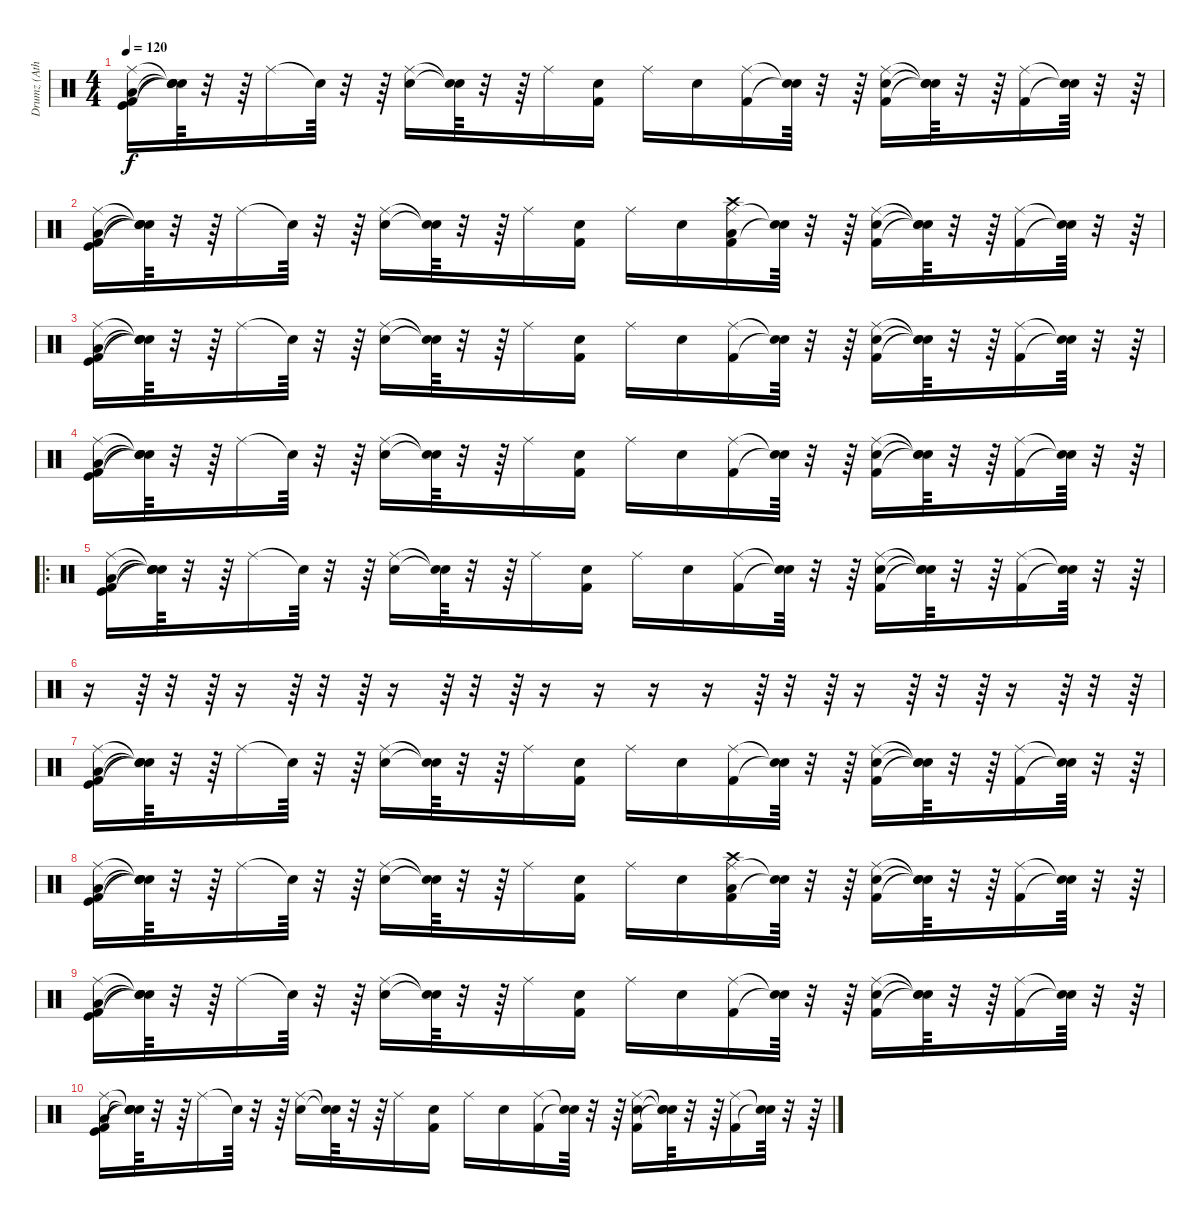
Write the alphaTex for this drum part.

\track ("Drumz (Athlon 800mhk)" "Drumz (Ath") {instrument percussion}
\staff {score}
\articulation defaults
\ts (4 4)
\tempo 120
\clef neutral
\ks c
("Kick (hit) 2" "Low Tom (hit)" "Kick (hit)" "Ride (middle)").16{dy f} ("Snare (hit)"{t} "Snare (hit)"{t} "Snare (hit)"{t} "Snare (hit)"{t}).64 r.32 r.64 "Ride (middle)".16 "Snare (hit)"{t}.64 r.32 r.64 ("Snare (hit) 2" "Ride (middle)").16 ("Snare (hit)"{t} "Snare (hit)"{t}).64 r.32 r.64 "Ride (middle)".16 ("Kick (hit) 2" "Snare (hit) 2").16 "Ride (middle)".16 "Snare (hit) 2".16 ("Kick (hit) 2" "Ride (middle)").16 ("Snare (hit)"{t} "Snare (hit)"{t}).64 r.32 r.64 ("Ride (middle)" "Snare (hit) 2" "Kick (hit) 2").16 ("Snare (hit)"{t} "Snare (hit)"{t} "Snare (hit)"{t}).64 r.32 r.64 ("Ride (middle)" "Kick (hit) 2").16 ("Snare (hit)"{t} "Snare (hit)"{t}).64 r.32 r.64 |
("Kick (hit) 2" "Low Tom (hit)" "Kick (hit)" "Ride (middle)").16 ("Snare (hit)"{t} "Snare (hit)"{t} "Snare (hit)"{t} "Snare (hit)"{t}).64 r.32 r.64 "Ride (middle)".16 "Snare (hit)"{t}.64 r.32 r.64 ("Snare (hit) 2" "Ride (middle)").16 ("Snare (hit)"{t} "Snare (hit)"{t}).64 r.32 r.64 "Ride (middle)".16 ("Kick (hit) 2" "Snare (hit) 2").16 "Ride (middle)".16 "Snare (hit) 2".16 ("Kick (hit) 2" "Ride (middle)" "Crash high (hit)" "Low Tom (hit)").16 ("Snare (hit)"{t} "Snare (hit)"{t}).64 r.32 r.64 ("Ride (middle)" "Snare (hit) 2" "Kick (hit) 2").16 ("Snare (hit)"{t} "Snare (hit)"{t} "Snare (hit)"{t}).64 r.32 r.64 ("Ride (middle)" "Kick (hit) 2").16 ("Snare (hit)"{t} "Snare (hit)"{t}).64 r.32 r.64 |
("Kick (hit) 2" "Low Tom (hit)" "Kick (hit)" "Ride (middle)").16 ("Snare (hit)"{t} "Snare (hit)"{t} "Snare (hit)"{t} "Snare (hit)"{t}).64 r.32 r.64 "Ride (middle)".16 "Snare (hit)"{t}.64 r.32 r.64 ("Snare (hit) 2" "Ride (middle)").16 ("Snare (hit)"{t} "Snare (hit)"{t}).64 r.32 r.64 "Ride (middle)".16 ("Kick (hit) 2" "Snare (hit) 2").16 "Ride (middle)".16 "Snare (hit) 2".16 ("Kick (hit) 2" "Ride (middle)").16 ("Snare (hit)"{t} "Snare (hit)"{t}).64 r.32 r.64 ("Ride (middle)" "Snare (hit) 2" "Kick (hit) 2").16 ("Snare (hit)"{t} "Snare (hit)"{t} "Snare (hit)"{t}).64 r.32 r.64 ("Ride (middle)" "Kick (hit) 2").16 ("Snare (hit)"{t} "Snare (hit)"{t}).64 r.32 r.64 |
("Kick (hit) 2" "Low Tom (hit)" "Kick (hit)" "Ride (middle)").16 ("Snare (hit)"{t} "Snare (hit)"{t} "Snare (hit)"{t} "Snare (hit)"{t}).64 r.32 r.64 "Ride (middle)".16 "Snare (hit)"{t}.64 r.32 r.64 ("Snare (hit) 2" "Ride (middle)").16 ("Snare (hit)"{t} "Snare (hit)"{t}).64 r.32 r.64 "Ride (middle)".16 ("Kick (hit) 2" "Snare (hit) 2").16 "Ride (middle)".16 "Snare (hit) 2".16 ("Kick (hit) 2" "Ride (middle)").16 ("Snare (hit)"{t} "Snare (hit)"{t}).64 r.32 r.64 ("Ride (middle)" "Snare (hit) 2" "Kick (hit) 2").16 ("Snare (hit)"{t} "Snare (hit)"{t} "Snare (hit)"{t}).64 r.32 r.64 ("Ride (middle)" "Kick (hit) 2").16 ("Snare (hit)"{t} "Snare (hit)"{t}).64 r.32 r.64 |
\ro
("Kick (hit) 2" "Low Tom (hit)" "Kick (hit)" "Ride (middle)").16 ("Snare (hit)"{t} "Snare (hit)"{t} "Snare (hit)"{t} "Snare (hit)"{t}).64 r.32 r.64 "Ride (middle)".16 "Snare (hit)"{t}.64 r.32 r.64 ("Snare (hit) 2" "Ride (middle)").16 ("Snare (hit)"{t} "Snare (hit)"{t}).64 r.32 r.64 "Ride (middle)".16 ("Kick (hit) 2" "Snare (hit) 2").16 "Ride (middle)".16 "Snare (hit) 2".16 ("Kick (hit) 2" "Ride (middle)").16 ("Snare (hit)"{t} "Snare (hit)"{t}).64 r.32 r.64 ("Ride (middle)" "Snare (hit) 2" "Kick (hit) 2").16 ("Snare (hit)"{t} "Snare (hit)"{t} "Snare (hit)"{t}).64 r.32 r.64 ("Ride (middle)" "Kick (hit) 2").16 ("Snare (hit)"{t} "Snare (hit)"{t}).64 r.32 r.64 |
r.16 r.64 r.32 r.64 r.16 r.64 r.32 r.64 r.16 r.64 r.32 r.64 r.16 r.16 r.16 r.16 r.64 r.32 r.64 r.16 r.64 r.32 r.64 r.16 r.64 r.32 r.64 |
("Kick (hit) 2" "Low Tom (hit)" "Kick (hit)" "Ride (middle)").16 ("Snare (hit)"{t} "Snare (hit)"{t} "Snare (hit)"{t} "Snare (hit)"{t}).64 r.32 r.64 "Ride (middle)".16 "Snare (hit)"{t}.64 r.32 r.64 ("Snare (hit) 2" "Ride (middle)").16 ("Snare (hit)"{t} "Snare (hit)"{t}).64 r.32 r.64 "Ride (middle)".16 ("Kick (hit) 2" "Snare (hit) 2").16 "Ride (middle)".16 "Snare (hit) 2".16 ("Kick (hit) 2" "Ride (middle)").16 ("Snare (hit)"{t} "Snare (hit)"{t}).64 r.32 r.64 ("Ride (middle)" "Snare (hit) 2" "Kick (hit) 2").16 ("Snare (hit)"{t} "Snare (hit)"{t} "Snare (hit)"{t}).64 r.32 r.64 ("Ride (middle)" "Kick (hit) 2").16 ("Snare (hit)"{t} "Snare (hit)"{t}).64 r.32 r.64 |
("Kick (hit) 2" "Low Tom (hit)" "Kick (hit)" "Ride (middle)").16 ("Snare (hit)"{t} "Snare (hit)"{t} "Snare (hit)"{t} "Snare (hit)"{t}).64 r.32 r.64 "Ride (middle)".16 "Snare (hit)"{t}.64 r.32 r.64 ("Snare (hit) 2" "Ride (middle)").16 ("Snare (hit)"{t} "Snare (hit)"{t}).64 r.32 r.64 "Ride (middle)".16 ("Kick (hit) 2" "Snare (hit) 2").16 "Ride (middle)".16 "Snare (hit) 2".16 ("Kick (hit) 2" "Ride (middle)" "Crash high (hit)" "Low Tom (hit)").16 ("Snare (hit)"{t} "Snare (hit)"{t}).64 r.32 r.64 ("Ride (middle)" "Snare (hit) 2" "Kick (hit) 2").16 ("Snare (hit)"{t} "Snare (hit)"{t} "Snare (hit)"{t}).64 r.32 r.64 ("Ride (middle)" "Kick (hit) 2").16 ("Snare (hit)"{t} "Snare (hit)"{t}).64 r.32 r.64 |
("Kick (hit) 2" "Low Tom (hit)" "Kick (hit)" "Ride (middle)").16 ("Snare (hit)"{t} "Snare (hit)"{t} "Snare (hit)"{t} "Snare (hit)"{t}).64 r.32 r.64 "Ride (middle)".16 "Snare (hit)"{t}.64 r.32 r.64 ("Snare (hit) 2" "Ride (middle)").16 ("Snare (hit)"{t} "Snare (hit)"{t}).64 r.32 r.64 "Ride (middle)".16 ("Kick (hit) 2" "Snare (hit) 2").16 "Ride (middle)".16 "Snare (hit) 2".16 ("Kick (hit) 2" "Ride (middle)").16 ("Snare (hit)"{t} "Snare (hit)"{t}).64 r.32 r.64 ("Ride (middle)" "Snare (hit) 2" "Kick (hit) 2").16 ("Snare (hit)"{t} "Snare (hit)"{t} "Snare (hit)"{t}).64 r.32 r.64 ("Ride (middle)" "Kick (hit) 2").16 ("Snare (hit)"{t} "Snare (hit)"{t}).64 r.32 r.64 |
("Kick (hit) 2" "Low Tom (hit)" "Kick (hit)" "Ride (middle)").16 ("Snare (hit)"{t} "Snare (hit)"{t} "Snare (hit)"{t} "Snare (hit)"{t}).64 r.32 r.64 "Ride (middle)".16 "Snare (hit)"{t}.64 r.32 r.64 ("Snare (hit) 2" "Ride (middle)").16 ("Snare (hit)"{t} "Snare (hit)"{t}).64 r.32 r.64 "Ride (middle)".16 ("Kick (hit) 2" "Snare (hit) 2").16 "Ride (middle)".16 "Snare (hit) 2".16 ("Kick (hit) 2" "Ride (middle)").16 ("Snare (hit)"{t} "Snare (hit)"{t}).64 r.32 r.64 ("Ride (middle)" "Snare (hit) 2" "Kick (hit) 2").16 ("Snare (hit)"{t} "Snare (hit)"{t} "Snare (hit)"{t}).64 r.32 r.64 ("Ride (middle)" "Kick (hit) 2").16 ("Snare (hit)"{t} "Snare (hit)"{t}).64 r.32 r.64
